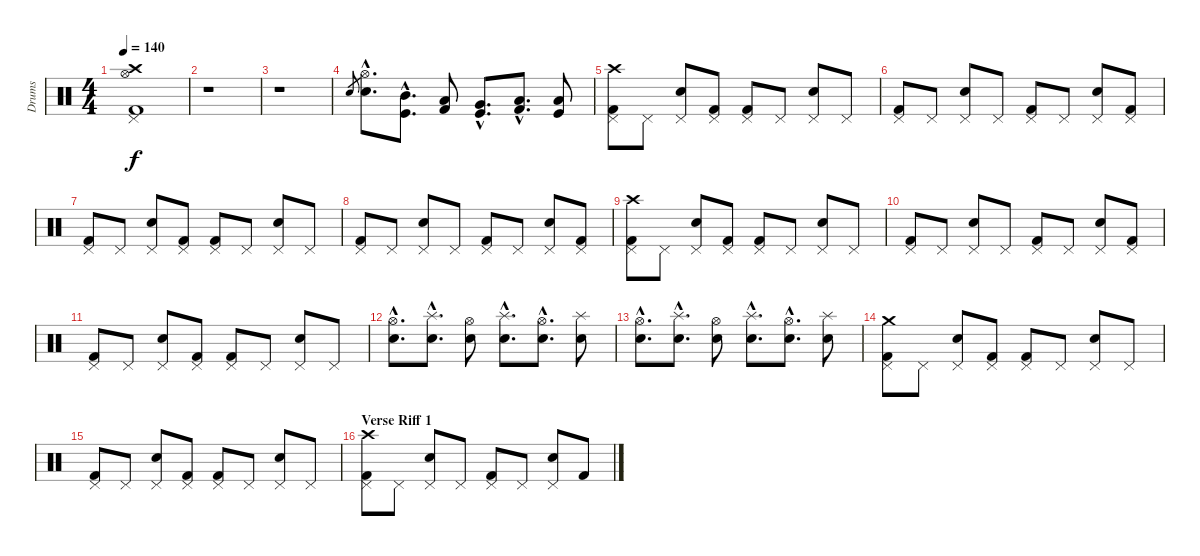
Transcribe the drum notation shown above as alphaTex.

\track ("Drums" "Drums") {instrument percussion}
\staff {score}
\articulation defaults
\ts (4 4)
\tempo 140
\clef neutral
\ks c
("Kick (hit) 2" "Pedal Hi-Hat (hit)" "Hi-Hat (open)" "Crash high (hit)").1{dy f} |
r.1 |
r.1 |
"Snare (hit) 2".8{gr} ("Snare (hit) 2"{hac} "Hi-Hat (open)"{hac}).8{d} ("Mid Tom (hit)"{hac} "Kick (hit)"{hac}).8{d} ("Low Tom (hit)" "Kick (hit) 2").8 ("Very Low Tom (hit)"{hac} "Kick (hit)"{hac}).8{d} ("Low Tom (hit)"{hac} "Kick (hit) 2"{hac}).8{d} ("Low Floor Tom (hit)" "Kick (hit)").8 |
("Kick (hit) 2" "Pedal Hi-Hat (hit)" "Crash high (hit)").8 "Pedal Hi-Hat (hit)".8 ("Snare (hit) 2" "Pedal Hi-Hat (hit)").8 ("Kick (hit) 2" "Pedal Hi-Hat (hit)").8 ("Kick (hit) 2" "Pedal Hi-Hat (hit)").8 "Pedal Hi-Hat (hit)".8 ("Snare (hit) 2" "Pedal Hi-Hat (hit)").8 "Pedal Hi-Hat (hit)".8 |
("Kick (hit) 2" "Pedal Hi-Hat (hit)").8 "Pedal Hi-Hat (hit)".8 ("Snare (hit) 2" "Pedal Hi-Hat (hit)").8 "Pedal Hi-Hat (hit)".8 ("Kick (hit) 2" "Pedal Hi-Hat (hit)").8 "Pedal Hi-Hat (hit)".8 ("Snare (hit) 2" "Pedal Hi-Hat (hit)").8 ("Kick (hit) 2" "Pedal Hi-Hat (hit)").8 |
("Kick (hit) 2" "Pedal Hi-Hat (hit)").8 "Pedal Hi-Hat (hit)".8 ("Snare (hit) 2" "Pedal Hi-Hat (hit)").8 ("Kick (hit) 2" "Pedal Hi-Hat (hit)").8 ("Kick (hit) 2" "Pedal Hi-Hat (hit)").8 "Pedal Hi-Hat (hit)".8 ("Snare (hit) 2" "Pedal Hi-Hat (hit)").8 "Pedal Hi-Hat (hit)".8 |
("Kick (hit) 2" "Pedal Hi-Hat (hit)").8 "Pedal Hi-Hat (hit)".8 ("Snare (hit) 2" "Pedal Hi-Hat (hit)").8 "Pedal Hi-Hat (hit)".8 ("Kick (hit) 2" "Pedal Hi-Hat (hit)").8 "Pedal Hi-Hat (hit)".8 ("Snare (hit) 2" "Pedal Hi-Hat (hit)").8 ("Kick (hit) 2" "Pedal Hi-Hat (hit)").8 |
("Kick (hit) 2" "Pedal Hi-Hat (hit)" "Crash high (hit)").8 "Pedal Hi-Hat (hit)".8 ("Snare (hit) 2" "Pedal Hi-Hat (hit)").8 ("Kick (hit) 2" "Pedal Hi-Hat (hit)").8 ("Kick (hit) 2" "Pedal Hi-Hat (hit)").8 "Pedal Hi-Hat (hit)".8 ("Snare (hit) 2" "Pedal Hi-Hat (hit)").8 "Pedal Hi-Hat (hit)".8 |
("Kick (hit) 2" "Pedal Hi-Hat (hit)").8 "Pedal Hi-Hat (hit)".8 ("Snare (hit) 2" "Pedal Hi-Hat (hit)").8 "Pedal Hi-Hat (hit)".8 ("Kick (hit) 2" "Pedal Hi-Hat (hit)").8 "Pedal Hi-Hat (hit)".8 ("Snare (hit) 2" "Pedal Hi-Hat (hit)").8 ("Kick (hit) 2" "Pedal Hi-Hat (hit)").8 |
("Kick (hit) 2" "Pedal Hi-Hat (hit)").8 "Pedal Hi-Hat (hit)".8 ("Snare (hit) 2" "Pedal Hi-Hat (hit)").8 ("Kick (hit) 2" "Pedal Hi-Hat (hit)").8 ("Kick (hit) 2" "Pedal Hi-Hat (hit)").8 "Pedal Hi-Hat (hit)".8 ("Snare (hit) 2" "Pedal Hi-Hat (hit)").8 "Pedal Hi-Hat (hit)".8 |
("Snare (hit) 2"{hac} "Hi-Hat (open)"{hac}).8{d} ("Snare (hit) 2"{hac} "Splash (hit)"{hac}).8{d} ("Snare (hit) 2" "Hi-Hat (open)").8 ("Snare (hit) 2"{hac} "Splash (hit)"{hac}).8{d} ("Snare (hit) 2"{hac} "Hi-Hat (open)"{hac}).8{d} ("Snare (hit) 2" "Splash (hit)").8 |
("Snare (hit) 2"{hac} "Hi-Hat (open)"{hac}).8{d} ("Snare (hit) 2"{hac} "Splash (hit)"{hac}).8{d} ("Snare (hit) 2" "Hi-Hat (open)").8 ("Snare (hit) 2"{hac} "Splash (hit)"{hac}).8{d} ("Snare (hit) 2"{hac} "Hi-Hat (open)"{hac}).8{d} ("Snare (hit) 2" "Splash (hit)").8 |
("Kick (hit) 2" "Pedal Hi-Hat (hit)" "Crash medium (hit)").8 "Pedal Hi-Hat (hit)".8 ("Snare (hit) 2" "Pedal Hi-Hat (hit)").8 ("Kick (hit) 2" "Pedal Hi-Hat (hit)").8 ("Kick (hit) 2" "Pedal Hi-Hat (hit)").8 "Pedal Hi-Hat (hit)".8 ("Snare (hit) 2" "Pedal Hi-Hat (hit)").8 "Pedal Hi-Hat (hit)".8 |
("Kick (hit) 2" "Pedal Hi-Hat (hit)").8 "Pedal Hi-Hat (hit)".8 ("Snare (hit) 2" "Pedal Hi-Hat (hit)").8 ("Kick (hit) 2" "Pedal Hi-Hat (hit)").8 ("Kick (hit) 2" "Pedal Hi-Hat (hit)").8 "Pedal Hi-Hat (hit)".8 ("Snare (hit) 2" "Pedal Hi-Hat (hit)").8 "Pedal Hi-Hat (hit)".8 |
\section ("" "Verse Riff 1")
("Kick (hit) 2" "Pedal Hi-Hat (hit)" "Crash high (hit)").8 "Pedal Hi-Hat (hit)".8 ("Snare (hit) 2" "Pedal Hi-Hat (hit)").8 "Pedal Hi-Hat (hit)".8 ("Kick (hit) 2" "Pedal Hi-Hat (hit)").8 "Pedal Hi-Hat (hit)".8 ("Snare (hit) 2" "Pedal Hi-Hat (hit)").8 "Kick (hit) 2".8
